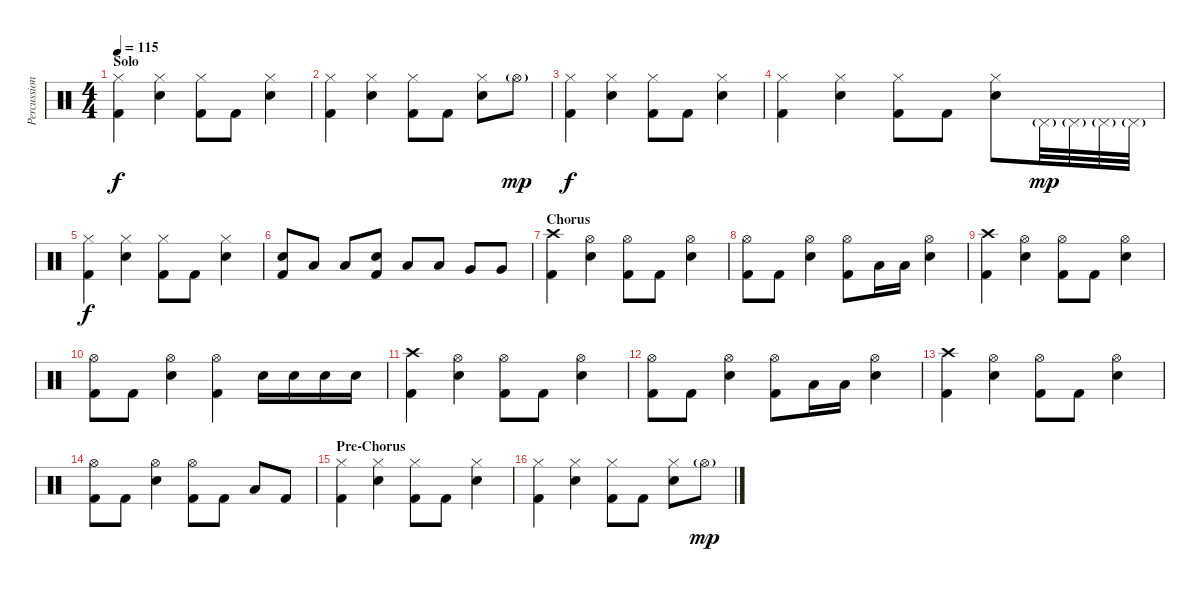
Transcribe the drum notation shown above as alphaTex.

\track ("Percussion" "Percussion") {instrument percussion}
\staff {score}
\articulation defaults
\ts (4 4)
\section ("" "Solo")
\tempo 115
\clef neutral
\ks c
("Hi-Hat (closed)" "Kick (hit) 2").4{dy f} ("Hi-Hat (closed)" "Snare (hit) 2").4 ("Hi-Hat (closed)" "Kick (hit) 2").8 "Kick (hit) 2".8 ("Hi-Hat (closed)" "Snare (hit) 2").4 |
("Hi-Hat (closed)" "Kick (hit) 2").4 ("Hi-Hat (closed)" "Snare (hit) 2").4 ("Hi-Hat (closed)" "Kick (hit) 2").8 "Kick (hit) 2".8 ("Hi-Hat (closed)" "Snare (hit) 2").8 "Hi-Hat (open)"{g}.8{dy mp} |
("Hi-Hat (closed)" "Kick (hit) 2").4{dy f} ("Hi-Hat (closed)" "Snare (hit) 2").4 ("Hi-Hat (closed)" "Kick (hit) 2").8 "Kick (hit) 2".8 ("Hi-Hat (closed)" "Snare (hit) 2").4 |
("Hi-Hat (closed)" "Kick (hit) 2").4 ("Hi-Hat (closed)" "Snare (hit) 2").4 ("Hi-Hat (closed)" "Kick (hit) 2").8 "Kick (hit) 2".8 ("Hi-Hat (closed)" "Snare (hit) 2").8 "Pedal Hi-Hat (hit)"{g}.32{dy mp} "Pedal Hi-Hat (hit)"{g}.32 "Pedal Hi-Hat (hit)"{g}.32 "Pedal Hi-Hat (hit)"{g}.32 |
("Hi-Hat (closed)" "Kick (hit) 2").4{dy f} ("Hi-Hat (closed)" "Snare (hit) 2").4 ("Hi-Hat (closed)" "Kick (hit) 2").8 "Kick (hit) 2".8 ("Hi-Hat (closed)" "Snare (hit) 2").4 |
("Snare (hit) 2" "Kick (hit) 2").8 "Low Tom (hit)".8 "Low Tom (hit)".8 ("Snare (hit) 2" "Kick (hit) 2").8 "Low Tom (hit)".8 "Low Tom (hit)".8 "Very Low Tom (hit)".8 "Very Low Tom (hit)".8 |
\section ("" "Chorus")
("Crash high (hit)" "Kick (hit) 2").4 ("Hi-Hat (open)" "Snare (hit) 2").4 ("Hi-Hat (open)" "Kick (hit) 2").8 "Kick (hit) 2".8 ("Hi-Hat (open)" "Snare (hit) 2").4 |
("Hi-Hat (open)" "Kick (hit) 2").8 "Kick (hit) 2".8 ("Hi-Hat (open)" "Snare (hit) 2").4 ("Hi-Hat (open)" "Kick (hit) 2").8 "Low Tom (hit)".16 "Low Tom (hit)".16 ("Hi-Hat (open)" "Snare (hit) 2").4 |
("Crash high (hit)" "Kick (hit) 2").4 ("Hi-Hat (open)" "Snare (hit) 2").4 ("Hi-Hat (open)" "Kick (hit) 2").8 "Kick (hit) 2".8 ("Hi-Hat (open)" "Snare (hit) 2").4 |
("Hi-Hat (open)" "Kick (hit) 2").8 "Kick (hit) 2".8 ("Hi-Hat (open)" "Snare (hit) 2").4 ("Hi-Hat (open)" "Kick (hit) 2").4 "Snare (hit) 2".16 "Snare (hit) 2".16 "Snare (hit) 2".16 "Snare (hit) 2".16 |
("Crash high (hit)" "Kick (hit) 2").4 ("Hi-Hat (open)" "Snare (hit) 2").4 ("Hi-Hat (open)" "Kick (hit) 2").8 "Kick (hit) 2".8 ("Hi-Hat (open)" "Snare (hit) 2").4 |
("Hi-Hat (open)" "Kick (hit) 2").8 "Kick (hit) 2".8 ("Hi-Hat (open)" "Snare (hit) 2").4 ("Hi-Hat (open)" "Kick (hit) 2").8 "Low Tom (hit)".16 "Low Tom (hit)".16 ("Hi-Hat (open)" "Snare (hit) 2").4 |
("Crash high (hit)" "Kick (hit) 2").4 ("Hi-Hat (open)" "Snare (hit) 2").4 ("Hi-Hat (open)" "Kick (hit) 2").8 "Kick (hit) 2".8 ("Hi-Hat (open)" "Snare (hit) 2").4 |
("Hi-Hat (open)" "Kick (hit) 2").8 "Kick (hit) 2".8 ("Hi-Hat (open)" "Snare (hit) 2").4 ("Hi-Hat (open)" "Kick (hit) 2").8 "Kick (hit) 2".8 "Low Tom (hit)".8 "Kick (hit) 2".8 |
\section ("" "Pre-Chorus")
("Hi-Hat (closed)" "Kick (hit) 2").4 ("Hi-Hat (closed)" "Snare (hit) 2").4 ("Hi-Hat (closed)" "Kick (hit) 2").8 "Kick (hit) 2".8 ("Hi-Hat (closed)" "Snare (hit) 2").4 |
("Hi-Hat (closed)" "Kick (hit) 2").4 ("Hi-Hat (closed)" "Snare (hit) 2").4 ("Hi-Hat (closed)" "Kick (hit) 2").8 "Kick (hit) 2".8 ("Hi-Hat (closed)" "Snare (hit) 2").8 "Hi-Hat (open)"{g}.8{dy mp}
